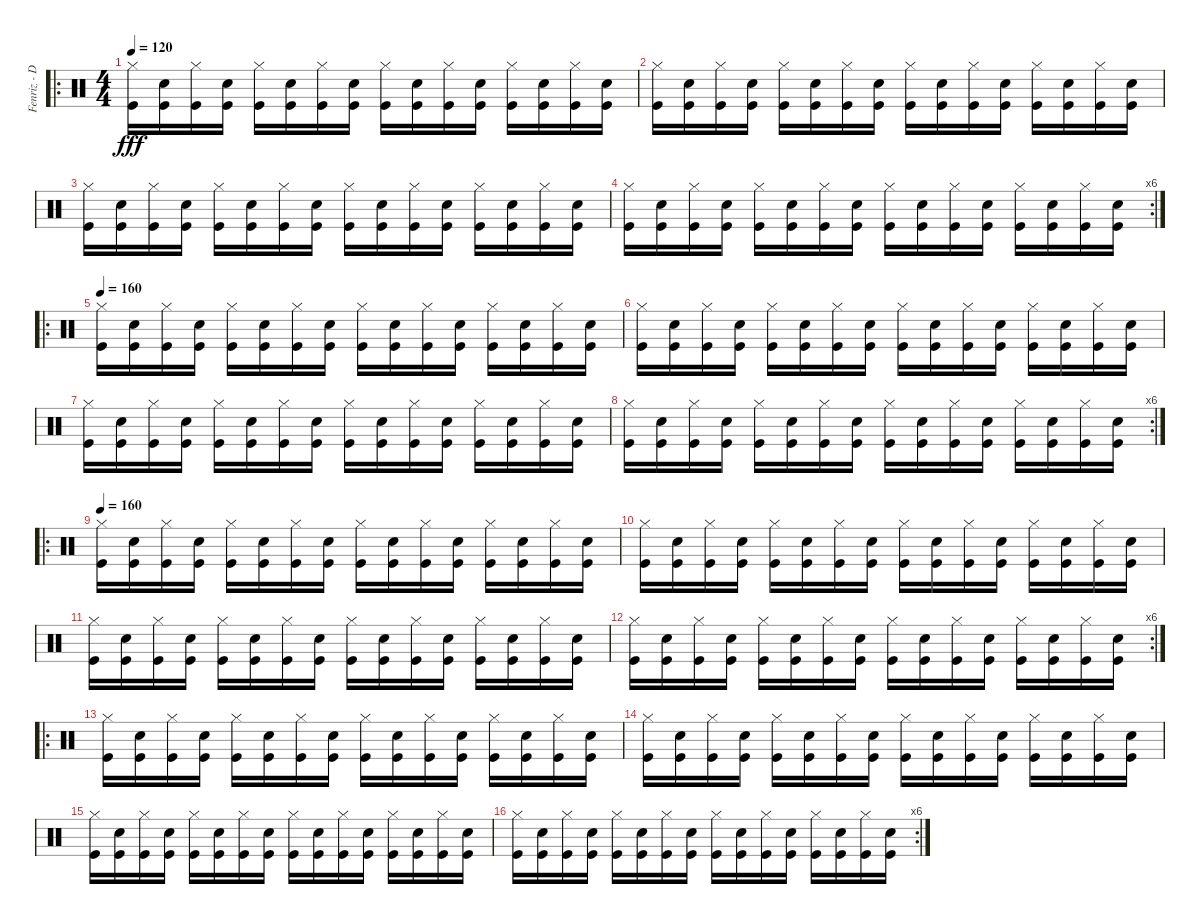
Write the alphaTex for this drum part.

\track ("Fenriz - Drums" "Fenriz - D") {instrument percussion}
\staff {score}
\articulation defaults
\ro
\ts (4 4)
\tempo 120
\tempo 160
\tempo 120
\clef neutral
\ks c
("Hi-Hat (closed)" "Kick (hit)").16{dy fff} ("Snare (hit) 2" "Kick (hit)").16 ("Hi-Hat (closed)" "Kick (hit)").16 ("Snare (hit) 2" "Kick (hit)").16 ("Hi-Hat (closed)" "Kick (hit)").16 ("Snare (hit) 2" "Kick (hit)").16 ("Hi-Hat (closed)" "Kick (hit)").16 ("Snare (hit) 2" "Kick (hit)").16 ("Hi-Hat (closed)" "Kick (hit)").16 ("Snare (hit) 2" "Kick (hit)").16 ("Hi-Hat (closed)" "Kick (hit)").16 ("Snare (hit) 2" "Kick (hit)").16 ("Hi-Hat (closed)" "Kick (hit)").16 ("Snare (hit) 2" "Kick (hit)").16 ("Hi-Hat (closed)" "Kick (hit)").16 ("Snare (hit) 2" "Kick (hit)").16 |
("Hi-Hat (closed)" "Kick (hit)").16 ("Snare (hit) 2" "Kick (hit)").16 ("Hi-Hat (closed)" "Kick (hit)").16 ("Snare (hit) 2" "Kick (hit)").16 ("Hi-Hat (closed)" "Kick (hit)").16 ("Snare (hit) 2" "Kick (hit)").16 ("Hi-Hat (closed)" "Kick (hit)").16 ("Snare (hit) 2" "Kick (hit)").16 ("Hi-Hat (closed)" "Kick (hit)").16 ("Snare (hit) 2" "Kick (hit)").16 ("Hi-Hat (closed)" "Kick (hit)").16 ("Snare (hit) 2" "Kick (hit)").16 ("Hi-Hat (closed)" "Kick (hit)").16 ("Snare (hit) 2" "Kick (hit)").16 ("Hi-Hat (closed)" "Kick (hit)").16 ("Snare (hit) 2" "Kick (hit)").16 |
("Hi-Hat (closed)" "Kick (hit)").16 ("Snare (hit) 2" "Kick (hit)").16 ("Hi-Hat (closed)" "Kick (hit)").16 ("Snare (hit) 2" "Kick (hit)").16 ("Hi-Hat (closed)" "Kick (hit)").16 ("Snare (hit) 2" "Kick (hit)").16 ("Hi-Hat (closed)" "Kick (hit)").16 ("Snare (hit) 2" "Kick (hit)").16 ("Hi-Hat (closed)" "Kick (hit)").16 ("Snare (hit) 2" "Kick (hit)").16 ("Hi-Hat (closed)" "Kick (hit)").16 ("Snare (hit) 2" "Kick (hit)").16 ("Hi-Hat (closed)" "Kick (hit)").16 ("Snare (hit) 2" "Kick (hit)").16 ("Hi-Hat (closed)" "Kick (hit)").16 ("Snare (hit) 2" "Kick (hit)").16 |
\rc 6
("Hi-Hat (closed)" "Kick (hit)").16 ("Snare (hit) 2" "Kick (hit)").16 ("Hi-Hat (closed)" "Kick (hit)").16 ("Snare (hit) 2" "Kick (hit)").16 ("Hi-Hat (closed)" "Kick (hit)").16 ("Snare (hit) 2" "Kick (hit)").16 ("Hi-Hat (closed)" "Kick (hit)").16 ("Snare (hit) 2" "Kick (hit)").16 ("Hi-Hat (closed)" "Kick (hit)").16 ("Snare (hit) 2" "Kick (hit)").16 ("Hi-Hat (closed)" "Kick (hit)").16 ("Snare (hit) 2" "Kick (hit)").16 ("Hi-Hat (closed)" "Kick (hit)").16 ("Snare (hit) 2" "Kick (hit)").16 ("Hi-Hat (closed)" "Kick (hit)").16 ("Snare (hit) 2" "Kick (hit)").16 |
\ro
\tempo 160
("Hi-Hat (closed)" "Kick (hit)").16 ("Snare (hit) 2" "Kick (hit)").16 ("Hi-Hat (closed)" "Kick (hit)").16 ("Snare (hit) 2" "Kick (hit)").16 ("Hi-Hat (closed)" "Kick (hit)").16 ("Snare (hit) 2" "Kick (hit)").16 ("Hi-Hat (closed)" "Kick (hit)").16 ("Snare (hit) 2" "Kick (hit)").16 ("Hi-Hat (closed)" "Kick (hit)").16 ("Snare (hit) 2" "Kick (hit)").16 ("Hi-Hat (closed)" "Kick (hit)").16 ("Snare (hit) 2" "Kick (hit)").16 ("Hi-Hat (closed)" "Kick (hit)").16 ("Snare (hit) 2" "Kick (hit)").16 ("Hi-Hat (closed)" "Kick (hit)").16 ("Snare (hit) 2" "Kick (hit)").16 |
("Hi-Hat (closed)" "Kick (hit)").16 ("Snare (hit) 2" "Kick (hit)").16 ("Hi-Hat (closed)" "Kick (hit)").16 ("Snare (hit) 2" "Kick (hit)").16 ("Hi-Hat (closed)" "Kick (hit)").16 ("Snare (hit) 2" "Kick (hit)").16 ("Hi-Hat (closed)" "Kick (hit)").16 ("Snare (hit) 2" "Kick (hit)").16 ("Hi-Hat (closed)" "Kick (hit)").16 ("Snare (hit) 2" "Kick (hit)").16 ("Hi-Hat (closed)" "Kick (hit)").16 ("Snare (hit) 2" "Kick (hit)").16 ("Hi-Hat (closed)" "Kick (hit)").16 ("Snare (hit) 2" "Kick (hit)").16 ("Hi-Hat (closed)" "Kick (hit)").16 ("Snare (hit) 2" "Kick (hit)").16 |
("Hi-Hat (closed)" "Kick (hit)").16 ("Snare (hit) 2" "Kick (hit)").16 ("Hi-Hat (closed)" "Kick (hit)").16 ("Snare (hit) 2" "Kick (hit)").16 ("Hi-Hat (closed)" "Kick (hit)").16 ("Snare (hit) 2" "Kick (hit)").16 ("Hi-Hat (closed)" "Kick (hit)").16 ("Snare (hit) 2" "Kick (hit)").16 ("Hi-Hat (closed)" "Kick (hit)").16 ("Snare (hit) 2" "Kick (hit)").16 ("Hi-Hat (closed)" "Kick (hit)").16 ("Snare (hit) 2" "Kick (hit)").16 ("Hi-Hat (closed)" "Kick (hit)").16 ("Snare (hit) 2" "Kick (hit)").16 ("Hi-Hat (closed)" "Kick (hit)").16 ("Snare (hit) 2" "Kick (hit)").16 |
\rc 6
("Hi-Hat (closed)" "Kick (hit)").16 ("Snare (hit) 2" "Kick (hit)").16 ("Hi-Hat (closed)" "Kick (hit)").16 ("Snare (hit) 2" "Kick (hit)").16 ("Hi-Hat (closed)" "Kick (hit)").16 ("Snare (hit) 2" "Kick (hit)").16 ("Hi-Hat (closed)" "Kick (hit)").16 ("Snare (hit) 2" "Kick (hit)").16 ("Hi-Hat (closed)" "Kick (hit)").16 ("Snare (hit) 2" "Kick (hit)").16 ("Hi-Hat (closed)" "Kick (hit)").16 ("Snare (hit) 2" "Kick (hit)").16 ("Hi-Hat (closed)" "Kick (hit)").16 ("Snare (hit) 2" "Kick (hit)").16 ("Hi-Hat (closed)" "Kick (hit)").16 ("Snare (hit) 2" "Kick (hit)").16 |
\ro
\tempo 160
("Hi-Hat (closed)" "Kick (hit)").16 ("Snare (hit) 2" "Kick (hit)").16 ("Hi-Hat (closed)" "Kick (hit)").16 ("Snare (hit) 2" "Kick (hit)").16 ("Hi-Hat (closed)" "Kick (hit)").16 ("Snare (hit) 2" "Kick (hit)").16 ("Hi-Hat (closed)" "Kick (hit)").16 ("Snare (hit) 2" "Kick (hit)").16 ("Hi-Hat (closed)" "Kick (hit)").16 ("Snare (hit) 2" "Kick (hit)").16 ("Hi-Hat (closed)" "Kick (hit)").16 ("Snare (hit) 2" "Kick (hit)").16 ("Hi-Hat (closed)" "Kick (hit)").16 ("Snare (hit) 2" "Kick (hit)").16 ("Hi-Hat (closed)" "Kick (hit)").16 ("Snare (hit) 2" "Kick (hit)").16 |
("Hi-Hat (closed)" "Kick (hit)").16 ("Snare (hit) 2" "Kick (hit)").16 ("Hi-Hat (closed)" "Kick (hit)").16 ("Snare (hit) 2" "Kick (hit)").16 ("Hi-Hat (closed)" "Kick (hit)").16 ("Snare (hit) 2" "Kick (hit)").16 ("Hi-Hat (closed)" "Kick (hit)").16 ("Snare (hit) 2" "Kick (hit)").16 ("Hi-Hat (closed)" "Kick (hit)").16 ("Snare (hit) 2" "Kick (hit)").16 ("Hi-Hat (closed)" "Kick (hit)").16 ("Snare (hit) 2" "Kick (hit)").16 ("Hi-Hat (closed)" "Kick (hit)").16 ("Snare (hit) 2" "Kick (hit)").16 ("Hi-Hat (closed)" "Kick (hit)").16 ("Snare (hit) 2" "Kick (hit)").16 |
("Hi-Hat (closed)" "Kick (hit)").16 ("Snare (hit) 2" "Kick (hit)").16 ("Hi-Hat (closed)" "Kick (hit)").16 ("Snare (hit) 2" "Kick (hit)").16 ("Hi-Hat (closed)" "Kick (hit)").16 ("Snare (hit) 2" "Kick (hit)").16 ("Hi-Hat (closed)" "Kick (hit)").16 ("Snare (hit) 2" "Kick (hit)").16 ("Hi-Hat (closed)" "Kick (hit)").16 ("Snare (hit) 2" "Kick (hit)").16 ("Hi-Hat (closed)" "Kick (hit)").16 ("Snare (hit) 2" "Kick (hit)").16 ("Hi-Hat (closed)" "Kick (hit)").16 ("Snare (hit) 2" "Kick (hit)").16 ("Hi-Hat (closed)" "Kick (hit)").16 ("Snare (hit) 2" "Kick (hit)").16 |
\rc 6
("Hi-Hat (closed)" "Kick (hit)").16 ("Snare (hit) 2" "Kick (hit)").16 ("Hi-Hat (closed)" "Kick (hit)").16 ("Snare (hit) 2" "Kick (hit)").16 ("Hi-Hat (closed)" "Kick (hit)").16 ("Snare (hit) 2" "Kick (hit)").16 ("Hi-Hat (closed)" "Kick (hit)").16 ("Snare (hit) 2" "Kick (hit)").16 ("Hi-Hat (closed)" "Kick (hit)").16 ("Snare (hit) 2" "Kick (hit)").16 ("Hi-Hat (closed)" "Kick (hit)").16 ("Snare (hit) 2" "Kick (hit)").16 ("Hi-Hat (closed)" "Kick (hit)").16 ("Snare (hit) 2" "Kick (hit)").16 ("Hi-Hat (closed)" "Kick (hit)").16 ("Snare (hit) 2" "Kick (hit)").16 |
\ro
("Hi-Hat (closed)" "Kick (hit)").16 ("Snare (hit) 2" "Kick (hit)").16 ("Hi-Hat (closed)" "Kick (hit)").16 ("Snare (hit) 2" "Kick (hit)").16 ("Hi-Hat (closed)" "Kick (hit)").16 ("Snare (hit) 2" "Kick (hit)").16 ("Hi-Hat (closed)" "Kick (hit)").16 ("Snare (hit) 2" "Kick (hit)").16 ("Hi-Hat (closed)" "Kick (hit)").16 ("Snare (hit) 2" "Kick (hit)").16 ("Hi-Hat (closed)" "Kick (hit)").16 ("Snare (hit) 2" "Kick (hit)").16 ("Hi-Hat (closed)" "Kick (hit)").16 ("Snare (hit) 2" "Kick (hit)").16 ("Hi-Hat (closed)" "Kick (hit)").16 ("Snare (hit) 2" "Kick (hit)").16 |
("Hi-Hat (closed)" "Kick (hit)").16 ("Snare (hit) 2" "Kick (hit)").16 ("Hi-Hat (closed)" "Kick (hit)").16 ("Snare (hit) 2" "Kick (hit)").16 ("Hi-Hat (closed)" "Kick (hit)").16 ("Snare (hit) 2" "Kick (hit)").16 ("Hi-Hat (closed)" "Kick (hit)").16 ("Snare (hit) 2" "Kick (hit)").16 ("Hi-Hat (closed)" "Kick (hit)").16 ("Snare (hit) 2" "Kick (hit)").16 ("Hi-Hat (closed)" "Kick (hit)").16 ("Snare (hit) 2" "Kick (hit)").16 ("Hi-Hat (closed)" "Kick (hit)").16 ("Snare (hit) 2" "Kick (hit)").16 ("Hi-Hat (closed)" "Kick (hit)").16 ("Snare (hit) 2" "Kick (hit)").16 |
("Hi-Hat (closed)" "Kick (hit)").16 ("Snare (hit) 2" "Kick (hit)").16 ("Hi-Hat (closed)" "Kick (hit)").16 ("Snare (hit) 2" "Kick (hit)").16 ("Hi-Hat (closed)" "Kick (hit)").16 ("Snare (hit) 2" "Kick (hit)").16 ("Hi-Hat (closed)" "Kick (hit)").16 ("Snare (hit) 2" "Kick (hit)").16 ("Hi-Hat (closed)" "Kick (hit)").16 ("Snare (hit) 2" "Kick (hit)").16 ("Hi-Hat (closed)" "Kick (hit)").16 ("Snare (hit) 2" "Kick (hit)").16 ("Hi-Hat (closed)" "Kick (hit)").16 ("Snare (hit) 2" "Kick (hit)").16 ("Hi-Hat (closed)" "Kick (hit)").16 ("Snare (hit) 2" "Kick (hit)").16 |
\rc 6
("Hi-Hat (closed)" "Kick (hit)").16 ("Snare (hit) 2" "Kick (hit)").16 ("Hi-Hat (closed)" "Kick (hit)").16 ("Snare (hit) 2" "Kick (hit)").16 ("Hi-Hat (closed)" "Kick (hit)").16 ("Snare (hit) 2" "Kick (hit)").16 ("Hi-Hat (closed)" "Kick (hit)").16 ("Snare (hit) 2" "Kick (hit)").16 ("Hi-Hat (closed)" "Kick (hit)").16 ("Snare (hit) 2" "Kick (hit)").16 ("Hi-Hat (closed)" "Kick (hit)").16 ("Snare (hit) 2" "Kick (hit)").16 ("Hi-Hat (closed)" "Kick (hit)").16 ("Snare (hit) 2" "Kick (hit)").16 ("Hi-Hat (closed)" "Kick (hit)").16 ("Snare (hit) 2" "Kick (hit)").16
